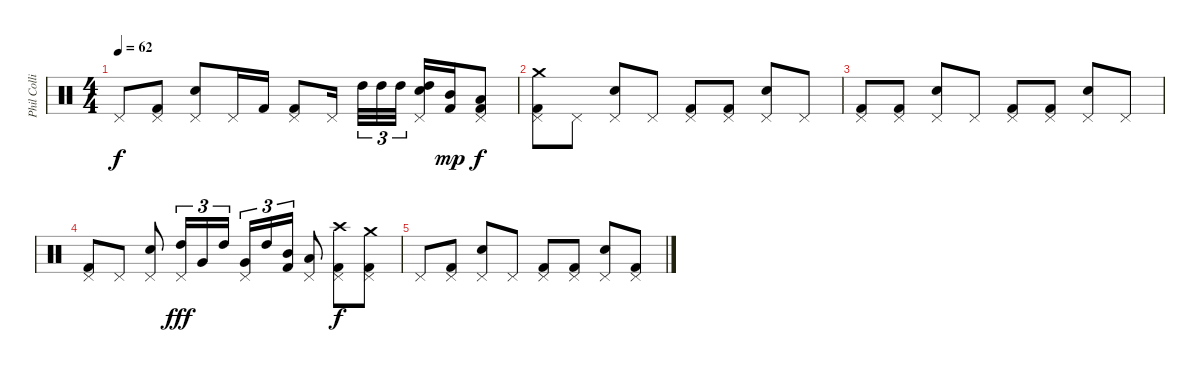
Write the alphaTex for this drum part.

\track ("Phil Collins (drums)" "Phil Colli") {instrument percussion}
\staff {score}
\articulation defaults
\ts (4 4)
\tempo 62
\clef neutral
\ks c "Pedal Hi-Hat (hit)".8{dy f}
("Pedal Hi-Hat (hit)" "Kick (hit) 2").8 ("Pedal Hi-Hat (hit)" "Electric Snare (hit)").8 "Pedal Hi-Hat (hit)".16 "Kick (hit) 2".16 ("Pedal Hi-Hat (hit)" "Kick (hit) 2").8 "Pedal Hi-Hat (hit)".16 "High Tom (hit)".32{tu (3 2)} "High Tom (hit)".32{tu (3 2)} "High Tom (hit)".32{tu (3 2)} ("High Tom (hit)" "Pedal Hi-Hat (hit)" "Electric Snare (hit)").16 ("Mid Tom (hit)" "Kick (hit) 2").16{dy mp} ("Low Tom (hit)" "Pedal Hi-Hat (hit)" "Kick (hit) 2").8{dy f} |
("Crash medium (hit)" "Pedal Hi-Hat (hit)" "Kick (hit) 2").8 "Pedal Hi-Hat (hit)".8 ("Pedal Hi-Hat (hit)" "Electric Snare (hit)").8 "Pedal Hi-Hat (hit)".8 ("Pedal Hi-Hat (hit)" "Kick (hit) 2").8 ("Pedal Hi-Hat (hit)" "Kick (hit) 2").8 ("Pedal Hi-Hat (hit)" "Electric Snare (hit)").8 "Pedal Hi-Hat (hit)".8 |
("Pedal Hi-Hat (hit)" "Kick (hit) 2").8 ("Pedal Hi-Hat (hit)" "Kick (hit) 2").8 ("Pedal Hi-Hat (hit)" "Electric Snare (hit)").8 "Pedal Hi-Hat (hit)".8 ("Pedal Hi-Hat (hit)" "Kick (hit) 2").8 ("Pedal Hi-Hat (hit)" "Kick (hit) 2").8 ("Pedal Hi-Hat (hit)" "Electric Snare (hit)").8 "Pedal Hi-Hat (hit)".8 |
("Pedal Hi-Hat (hit)" "Kick (hit) 2").8 "Pedal Hi-Hat (hit)".8 ("Pedal Hi-Hat (hit)" "Electric Snare (hit)").8 ("High Tom (hit)" "Pedal Hi-Hat (hit)").16{tu (3 2) dy fff} "Very Low Tom (hit)".16{tu (3 2)} "High Tom (hit)".16{tu (3 2)} ("Very Low Tom (hit)" "Pedal Hi-Hat (hit)").16{tu (3 2)} "High Tom (hit)".16{tu (3 2)} ("Mid Tom (hit)" "Kick (hit) 2").16{tu (3 2)} ("Low Tom (hit)" "Pedal Hi-Hat (hit)").8 ("Crash high (hit)" "Pedal Hi-Hat (hit)" "Kick (hit) 2").8{dy f} ("Crash medium (hit)" "Pedal Hi-Hat (hit)" "Kick (hit) 2").8 |
"Pedal Hi-Hat (hit)".8 ("Pedal Hi-Hat (hit)" "Kick (hit) 2").8 ("Pedal Hi-Hat (hit)" "Electric Snare (hit)").8 "Pedal Hi-Hat (hit)".8 ("Pedal Hi-Hat (hit)" "Kick (hit) 2").8 ("Pedal Hi-Hat (hit)" "Kick (hit) 2").8 ("Pedal Hi-Hat (hit)" "Electric Snare (hit)").8 ("Pedal Hi-Hat (hit)" "Kick (hit) 2").8
